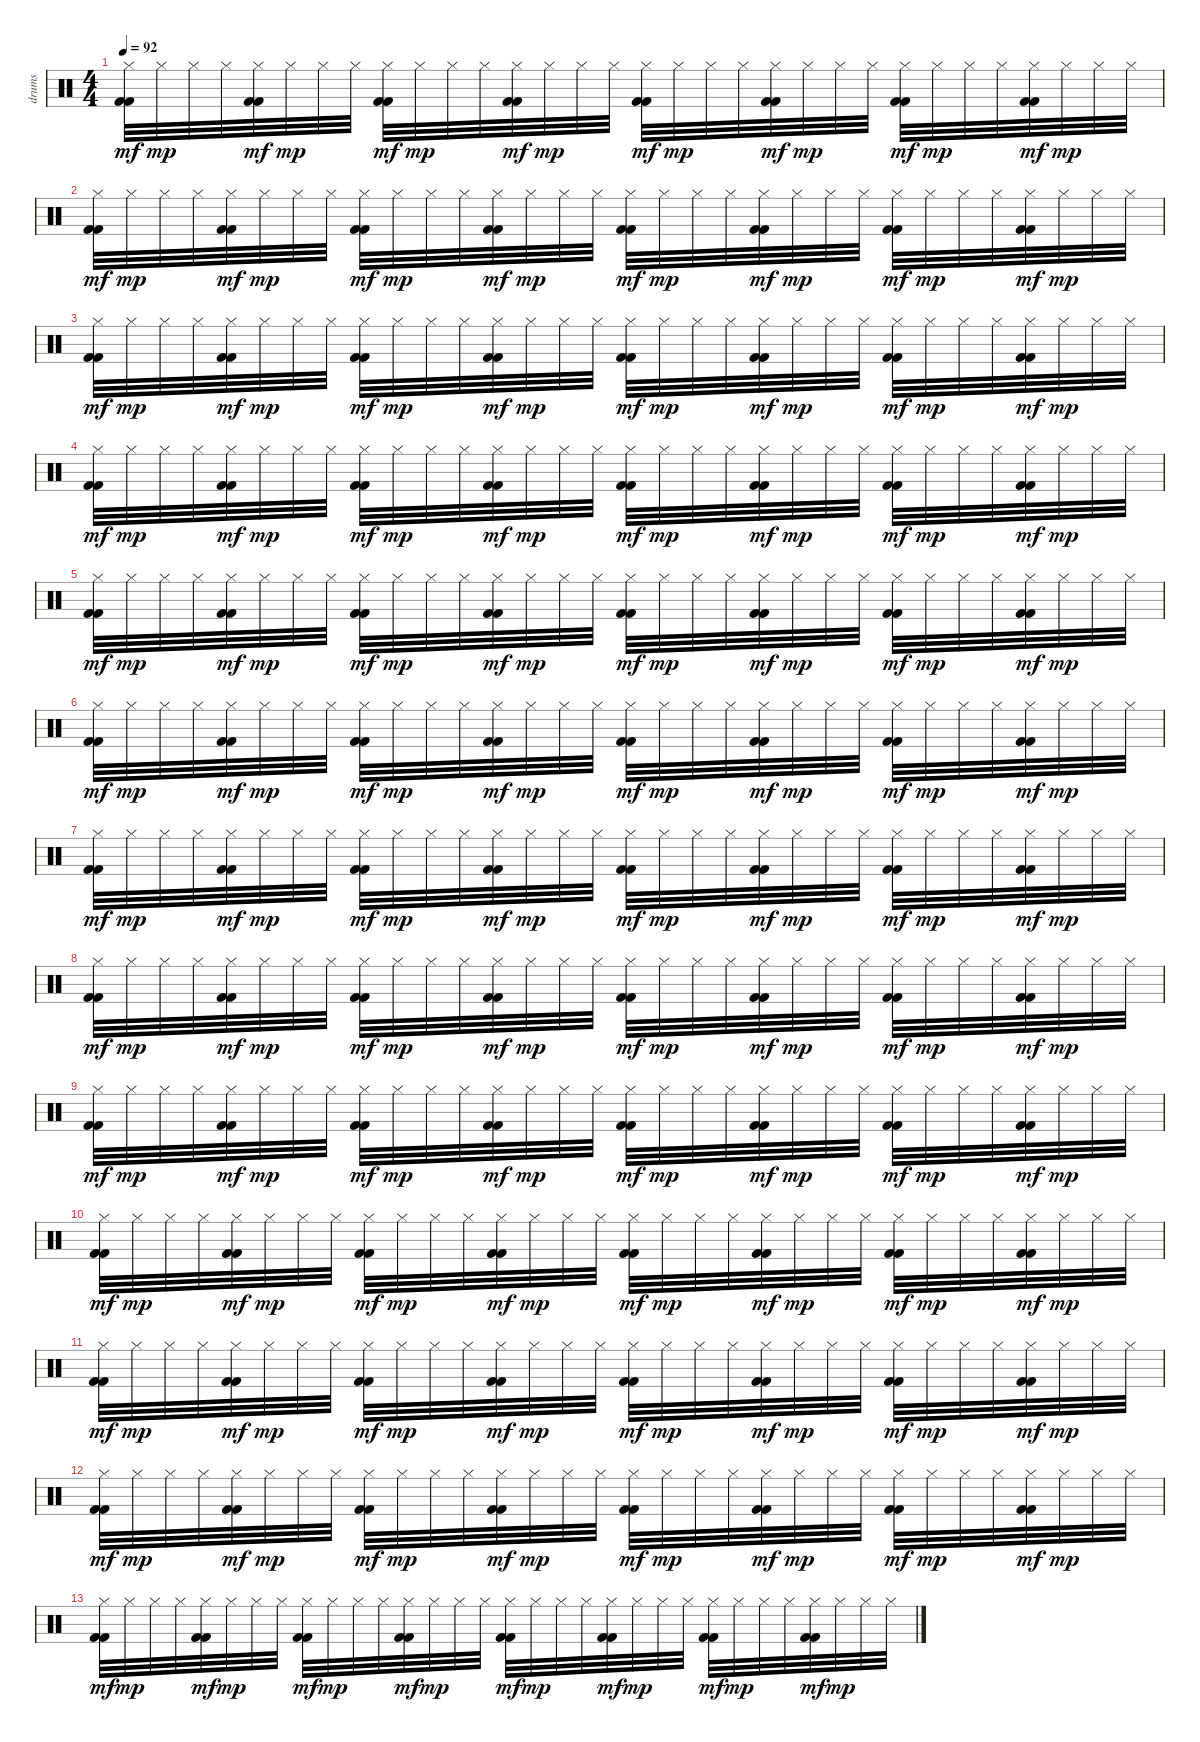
\track ("drums" "drums") {instrument percussion}
\staff {score}
\articulation defaults
\ts (4 4)
\tempo 92
\clef neutral
\ks c
("Hi-Hat (closed)" "Kick (hit) 2" "Kick (hit) 2").32{dy mf} "Hi-Hat (closed)".32{dy mp} "Hi-Hat (closed)".32 "Hi-Hat (closed)".32 ("Hi-Hat (closed)" "Kick (hit) 2" "Kick (hit) 2").32{dy mf} "Hi-Hat (closed)".32{dy mp} "Hi-Hat (closed)".32 "Hi-Hat (closed)".32 ("Hi-Hat (closed)" "Kick (hit) 2" "Kick (hit) 2").32{dy mf} "Hi-Hat (closed)".32{dy mp} "Hi-Hat (closed)".32 "Hi-Hat (closed)".32 ("Hi-Hat (closed)" "Kick (hit) 2" "Kick (hit) 2").32{dy mf} "Hi-Hat (closed)".32{dy mp} "Hi-Hat (closed)".32 "Hi-Hat (closed)".32 ("Hi-Hat (closed)" "Kick (hit) 2" "Kick (hit) 2").32{dy mf} "Hi-Hat (closed)".32{dy mp} "Hi-Hat (closed)".32 "Hi-Hat (closed)".32 ("Hi-Hat (closed)" "Kick (hit) 2" "Kick (hit) 2").32{dy mf} "Hi-Hat (closed)".32{dy mp} "Hi-Hat (closed)".32 "Hi-Hat (closed)".32 ("Hi-Hat (closed)" "Kick (hit) 2" "Kick (hit) 2").32{dy mf} "Hi-Hat (closed)".32{dy mp} "Hi-Hat (closed)".32 "Hi-Hat (closed)".32 ("Hi-Hat (closed)" "Kick (hit) 2" "Kick (hit) 2").32{dy mf} "Hi-Hat (closed)".32{dy mp} "Hi-Hat (closed)".32 "Hi-Hat (closed)".32 |
("Hi-Hat (closed)" "Kick (hit) 2" "Kick (hit) 2").32{dy mf volume 7} "Hi-Hat (closed)".32{dy mp} "Hi-Hat (closed)".32 "Hi-Hat (closed)".32 ("Hi-Hat (closed)" "Kick (hit) 2" "Kick (hit) 2").32{dy mf} "Hi-Hat (closed)".32{dy mp} "Hi-Hat (closed)".32 "Hi-Hat (closed)".32 ("Hi-Hat (closed)" "Kick (hit) 2" "Kick (hit) 2").32{dy mf} "Hi-Hat (closed)".32{dy mp} "Hi-Hat (closed)".32 "Hi-Hat (closed)".32 ("Hi-Hat (closed)" "Kick (hit) 2" "Kick (hit) 2").32{dy mf} "Hi-Hat (closed)".32{dy mp} "Hi-Hat (closed)".32 "Hi-Hat (closed)".32 ("Hi-Hat (closed)" "Kick (hit) 2" "Kick (hit) 2").32{dy mf} "Hi-Hat (closed)".32{dy mp} "Hi-Hat (closed)".32 "Hi-Hat (closed)".32 ("Hi-Hat (closed)" "Kick (hit) 2" "Kick (hit) 2").32{dy mf} "Hi-Hat (closed)".32{dy mp} "Hi-Hat (closed)".32 "Hi-Hat (closed)".32 ("Hi-Hat (closed)" "Kick (hit) 2" "Kick (hit) 2").32{dy mf} "Hi-Hat (closed)".32{dy mp} "Hi-Hat (closed)".32 "Hi-Hat (closed)".32 ("Hi-Hat (closed)" "Kick (hit) 2" "Kick (hit) 2").32{dy mf} "Hi-Hat (closed)".32{dy mp} "Hi-Hat (closed)".32 "Hi-Hat (closed)".32 |
("Hi-Hat (closed)" "Kick (hit) 2" "Kick (hit) 2").32{dy mf} "Hi-Hat (closed)".32{dy mp} "Hi-Hat (closed)".32 "Hi-Hat (closed)".32 ("Hi-Hat (closed)" "Kick (hit) 2" "Kick (hit) 2").32{dy mf} "Hi-Hat (closed)".32{dy mp} "Hi-Hat (closed)".32 "Hi-Hat (closed)".32 ("Hi-Hat (closed)" "Kick (hit) 2" "Kick (hit) 2").32{dy mf} "Hi-Hat (closed)".32{dy mp} "Hi-Hat (closed)".32 "Hi-Hat (closed)".32 ("Hi-Hat (closed)" "Kick (hit) 2" "Kick (hit) 2").32{dy mf} "Hi-Hat (closed)".32{dy mp} "Hi-Hat (closed)".32 "Hi-Hat (closed)".32 ("Hi-Hat (closed)" "Kick (hit) 2" "Kick (hit) 2").32{dy mf} "Hi-Hat (closed)".32{dy mp} "Hi-Hat (closed)".32 "Hi-Hat (closed)".32 ("Hi-Hat (closed)" "Kick (hit) 2" "Kick (hit) 2").32{dy mf} "Hi-Hat (closed)".32{dy mp} "Hi-Hat (closed)".32 "Hi-Hat (closed)".32 ("Hi-Hat (closed)" "Kick (hit) 2" "Kick (hit) 2").32{dy mf} "Hi-Hat (closed)".32{dy mp} "Hi-Hat (closed)".32 "Hi-Hat (closed)".32 ("Hi-Hat (closed)" "Kick (hit) 2" "Kick (hit) 2").32{dy mf} "Hi-Hat (closed)".32{dy mp} "Hi-Hat (closed)".32 "Hi-Hat (closed)".32 |
("Hi-Hat (closed)" "Kick (hit) 2" "Kick (hit) 2").32{dy mf} "Hi-Hat (closed)".32{dy mp} "Hi-Hat (closed)".32 "Hi-Hat (closed)".32 ("Hi-Hat (closed)" "Kick (hit) 2" "Kick (hit) 2").32{dy mf} "Hi-Hat (closed)".32{dy mp} "Hi-Hat (closed)".32 "Hi-Hat (closed)".32 ("Hi-Hat (closed)" "Kick (hit) 2" "Kick (hit) 2").32{dy mf} "Hi-Hat (closed)".32{dy mp} "Hi-Hat (closed)".32 "Hi-Hat (closed)".32 ("Hi-Hat (closed)" "Kick (hit) 2" "Kick (hit) 2").32{dy mf} "Hi-Hat (closed)".32{dy mp} "Hi-Hat (closed)".32 "Hi-Hat (closed)".32 ("Hi-Hat (closed)" "Kick (hit) 2" "Kick (hit) 2").32{dy mf} "Hi-Hat (closed)".32{dy mp} "Hi-Hat (closed)".32 "Hi-Hat (closed)".32 ("Hi-Hat (closed)" "Kick (hit) 2" "Kick (hit) 2").32{dy mf} "Hi-Hat (closed)".32{dy mp} "Hi-Hat (closed)".32 "Hi-Hat (closed)".32 ("Hi-Hat (closed)" "Kick (hit) 2" "Kick (hit) 2").32{dy mf} "Hi-Hat (closed)".32{dy mp} "Hi-Hat (closed)".32 "Hi-Hat (closed)".32 ("Hi-Hat (closed)" "Kick (hit) 2" "Kick (hit) 2").32{dy mf} "Hi-Hat (closed)".32{dy mp} "Hi-Hat (closed)".32 "Hi-Hat (closed)".32 |
("Hi-Hat (closed)" "Kick (hit) 2" "Kick (hit) 2").32{dy mf} "Hi-Hat (closed)".32{dy mp} "Hi-Hat (closed)".32 "Hi-Hat (closed)".32 ("Hi-Hat (closed)" "Kick (hit) 2" "Kick (hit) 2").32{dy mf} "Hi-Hat (closed)".32{dy mp} "Hi-Hat (closed)".32 "Hi-Hat (closed)".32 ("Hi-Hat (closed)" "Kick (hit) 2" "Kick (hit) 2").32{dy mf} "Hi-Hat (closed)".32{dy mp} "Hi-Hat (closed)".32 "Hi-Hat (closed)".32 ("Hi-Hat (closed)" "Kick (hit) 2" "Kick (hit) 2").32{dy mf} "Hi-Hat (closed)".32{dy mp} "Hi-Hat (closed)".32 "Hi-Hat (closed)".32 ("Hi-Hat (closed)" "Kick (hit) 2" "Kick (hit) 2").32{dy mf} "Hi-Hat (closed)".32{dy mp} "Hi-Hat (closed)".32 "Hi-Hat (closed)".32 ("Hi-Hat (closed)" "Kick (hit) 2" "Kick (hit) 2").32{dy mf} "Hi-Hat (closed)".32{dy mp} "Hi-Hat (closed)".32 "Hi-Hat (closed)".32 ("Hi-Hat (closed)" "Kick (hit) 2" "Kick (hit) 2").32{dy mf} "Hi-Hat (closed)".32{dy mp} "Hi-Hat (closed)".32 "Hi-Hat (closed)".32 ("Hi-Hat (closed)" "Kick (hit) 2" "Kick (hit) 2").32{dy mf} "Hi-Hat (closed)".32{dy mp} "Hi-Hat (closed)".32 "Hi-Hat (closed)".32 |
("Hi-Hat (closed)" "Kick (hit) 2" "Kick (hit) 2").32{dy mf volume 6} "Hi-Hat (closed)".32{dy mp} "Hi-Hat (closed)".32 "Hi-Hat (closed)".32 ("Hi-Hat (closed)" "Kick (hit) 2" "Kick (hit) 2").32{dy mf} "Hi-Hat (closed)".32{dy mp} "Hi-Hat (closed)".32 "Hi-Hat (closed)".32 ("Hi-Hat (closed)" "Kick (hit) 2" "Kick (hit) 2").32{dy mf} "Hi-Hat (closed)".32{dy mp} "Hi-Hat (closed)".32 "Hi-Hat (closed)".32 ("Hi-Hat (closed)" "Kick (hit) 2" "Kick (hit) 2").32{dy mf} "Hi-Hat (closed)".32{dy mp} "Hi-Hat (closed)".32 "Hi-Hat (closed)".32 ("Hi-Hat (closed)" "Kick (hit) 2" "Kick (hit) 2").32{dy mf} "Hi-Hat (closed)".32{dy mp} "Hi-Hat (closed)".32 "Hi-Hat (closed)".32 ("Hi-Hat (closed)" "Kick (hit) 2" "Kick (hit) 2").32{dy mf} "Hi-Hat (closed)".32{dy mp} "Hi-Hat (closed)".32 "Hi-Hat (closed)".32 ("Hi-Hat (closed)" "Kick (hit) 2" "Kick (hit) 2").32{dy mf} "Hi-Hat (closed)".32{dy mp} "Hi-Hat (closed)".32 "Hi-Hat (closed)".32 ("Hi-Hat (closed)" "Kick (hit) 2" "Kick (hit) 2").32{dy mf} "Hi-Hat (closed)".32{dy mp} "Hi-Hat (closed)".32 "Hi-Hat (closed)".32 |
("Hi-Hat (closed)" "Kick (hit) 2" "Kick (hit) 2").32{dy mf} "Hi-Hat (closed)".32{dy mp} "Hi-Hat (closed)".32 "Hi-Hat (closed)".32 ("Hi-Hat (closed)" "Kick (hit) 2" "Kick (hit) 2").32{dy mf} "Hi-Hat (closed)".32{dy mp} "Hi-Hat (closed)".32 "Hi-Hat (closed)".32 ("Hi-Hat (closed)" "Kick (hit) 2" "Kick (hit) 2").32{dy mf} "Hi-Hat (closed)".32{dy mp} "Hi-Hat (closed)".32 "Hi-Hat (closed)".32 ("Hi-Hat (closed)" "Kick (hit) 2" "Kick (hit) 2").32{dy mf} "Hi-Hat (closed)".32{dy mp} "Hi-Hat (closed)".32 "Hi-Hat (closed)".32 ("Hi-Hat (closed)" "Kick (hit) 2" "Kick (hit) 2").32{dy mf} "Hi-Hat (closed)".32{dy mp} "Hi-Hat (closed)".32 "Hi-Hat (closed)".32 ("Hi-Hat (closed)" "Kick (hit) 2" "Kick (hit) 2").32{dy mf} "Hi-Hat (closed)".32{dy mp} "Hi-Hat (closed)".32 "Hi-Hat (closed)".32 ("Hi-Hat (closed)" "Kick (hit) 2" "Kick (hit) 2").32{dy mf} "Hi-Hat (closed)".32{dy mp} "Hi-Hat (closed)".32 "Hi-Hat (closed)".32 ("Hi-Hat (closed)" "Kick (hit) 2" "Kick (hit) 2").32{dy mf} "Hi-Hat (closed)".32{dy mp} "Hi-Hat (closed)".32 "Hi-Hat (closed)".32 |
("Hi-Hat (closed)" "Kick (hit) 2" "Kick (hit) 2").32{dy mf volume 4} "Hi-Hat (closed)".32{dy mp} "Hi-Hat (closed)".32 "Hi-Hat (closed)".32 ("Hi-Hat (closed)" "Kick (hit) 2" "Kick (hit) 2").32{dy mf} "Hi-Hat (closed)".32{dy mp} "Hi-Hat (closed)".32 "Hi-Hat (closed)".32 ("Hi-Hat (closed)" "Kick (hit) 2" "Kick (hit) 2").32{dy mf} "Hi-Hat (closed)".32{dy mp} "Hi-Hat (closed)".32 "Hi-Hat (closed)".32 ("Hi-Hat (closed)" "Kick (hit) 2" "Kick (hit) 2").32{dy mf} "Hi-Hat (closed)".32{dy mp} "Hi-Hat (closed)".32 "Hi-Hat (closed)".32 ("Hi-Hat (closed)" "Kick (hit) 2" "Kick (hit) 2").32{dy mf} "Hi-Hat (closed)".32{dy mp} "Hi-Hat (closed)".32 "Hi-Hat (closed)".32 ("Hi-Hat (closed)" "Kick (hit) 2" "Kick (hit) 2").32{dy mf} "Hi-Hat (closed)".32{dy mp} "Hi-Hat (closed)".32 "Hi-Hat (closed)".32 ("Hi-Hat (closed)" "Kick (hit) 2" "Kick (hit) 2").32{dy mf} "Hi-Hat (closed)".32{dy mp} "Hi-Hat (closed)".32 "Hi-Hat (closed)".32 ("Hi-Hat (closed)" "Kick (hit) 2" "Kick (hit) 2").32{dy mf} "Hi-Hat (closed)".32{dy mp} "Hi-Hat (closed)".32 "Hi-Hat (closed)".32 |
("Hi-Hat (closed)" "Kick (hit) 2" "Kick (hit) 2").32{dy mf} "Hi-Hat (closed)".32{dy mp} "Hi-Hat (closed)".32 "Hi-Hat (closed)".32 ("Hi-Hat (closed)" "Kick (hit) 2" "Kick (hit) 2").32{dy mf} "Hi-Hat (closed)".32{dy mp} "Hi-Hat (closed)".32 "Hi-Hat (closed)".32 ("Hi-Hat (closed)" "Kick (hit) 2" "Kick (hit) 2").32{dy mf} "Hi-Hat (closed)".32{dy mp} "Hi-Hat (closed)".32 "Hi-Hat (closed)".32 ("Hi-Hat (closed)" "Kick (hit) 2" "Kick (hit) 2").32{dy mf} "Hi-Hat (closed)".32{dy mp} "Hi-Hat (closed)".32 "Hi-Hat (closed)".32 ("Hi-Hat (closed)" "Kick (hit) 2" "Kick (hit) 2").32{dy mf} "Hi-Hat (closed)".32{dy mp} "Hi-Hat (closed)".32 "Hi-Hat (closed)".32 ("Hi-Hat (closed)" "Kick (hit) 2" "Kick (hit) 2").32{dy mf} "Hi-Hat (closed)".32{dy mp} "Hi-Hat (closed)".32 "Hi-Hat (closed)".32 ("Hi-Hat (closed)" "Kick (hit) 2" "Kick (hit) 2").32{dy mf} "Hi-Hat (closed)".32{dy mp} "Hi-Hat (closed)".32 "Hi-Hat (closed)".32 ("Hi-Hat (closed)" "Kick (hit) 2" "Kick (hit) 2").32{dy mf} "Hi-Hat (closed)".32{dy mp} "Hi-Hat (closed)".32 "Hi-Hat (closed)".32 |
("Hi-Hat (closed)" "Kick (hit) 2" "Kick (hit) 2").32{dy mf} "Hi-Hat (closed)".32{dy mp} "Hi-Hat (closed)".32 "Hi-Hat (closed)".32 ("Hi-Hat (closed)" "Kick (hit) 2" "Kick (hit) 2").32{dy mf} "Hi-Hat (closed)".32{dy mp} "Hi-Hat (closed)".32 "Hi-Hat (closed)".32 ("Hi-Hat (closed)" "Kick (hit) 2" "Kick (hit) 2").32{dy mf} "Hi-Hat (closed)".32{dy mp} "Hi-Hat (closed)".32 "Hi-Hat (closed)".32 ("Hi-Hat (closed)" "Kick (hit) 2" "Kick (hit) 2").32{dy mf} "Hi-Hat (closed)".32{dy mp} "Hi-Hat (closed)".32 "Hi-Hat (closed)".32 ("Hi-Hat (closed)" "Kick (hit) 2" "Kick (hit) 2").32{dy mf} "Hi-Hat (closed)".32{dy mp} "Hi-Hat (closed)".32 "Hi-Hat (closed)".32 ("Hi-Hat (closed)" "Kick (hit) 2" "Kick (hit) 2").32{dy mf} "Hi-Hat (closed)".32{dy mp} "Hi-Hat (closed)".32 "Hi-Hat (closed)".32 ("Hi-Hat (closed)" "Kick (hit) 2" "Kick (hit) 2").32{dy mf} "Hi-Hat (closed)".32{dy mp} "Hi-Hat (closed)".32 "Hi-Hat (closed)".32 ("Hi-Hat (closed)" "Kick (hit) 2" "Kick (hit) 2").32{dy mf} "Hi-Hat (closed)".32{dy mp} "Hi-Hat (closed)".32 "Hi-Hat (closed)".32 |
("Hi-Hat (closed)" "Kick (hit) 2" "Kick (hit) 2").32{dy mf volume 0} "Hi-Hat (closed)".32{dy mp} "Hi-Hat (closed)".32 "Hi-Hat (closed)".32 ("Hi-Hat (closed)" "Kick (hit) 2" "Kick (hit) 2").32{dy mf} "Hi-Hat (closed)".32{dy mp} "Hi-Hat (closed)".32 "Hi-Hat (closed)".32 ("Hi-Hat (closed)" "Kick (hit) 2" "Kick (hit) 2").32{dy mf} "Hi-Hat (closed)".32{dy mp} "Hi-Hat (closed)".32 "Hi-Hat (closed)".32 ("Hi-Hat (closed)" "Kick (hit) 2" "Kick (hit) 2").32{dy mf} "Hi-Hat (closed)".32{dy mp} "Hi-Hat (closed)".32 "Hi-Hat (closed)".32 ("Hi-Hat (closed)" "Kick (hit) 2" "Kick (hit) 2").32{dy mf} "Hi-Hat (closed)".32{dy mp} "Hi-Hat (closed)".32 "Hi-Hat (closed)".32 ("Hi-Hat (closed)" "Kick (hit) 2" "Kick (hit) 2").32{dy mf} "Hi-Hat (closed)".32{dy mp} "Hi-Hat (closed)".32 "Hi-Hat (closed)".32 ("Hi-Hat (closed)" "Kick (hit) 2" "Kick (hit) 2").32{dy mf} "Hi-Hat (closed)".32{dy mp} "Hi-Hat (closed)".32 "Hi-Hat (closed)".32 ("Hi-Hat (closed)" "Kick (hit) 2" "Kick (hit) 2").32{dy mf} "Hi-Hat (closed)".32{dy mp} "Hi-Hat (closed)".32 "Hi-Hat (closed)".32 |
("Hi-Hat (closed)" "Kick (hit) 2" "Kick (hit) 2").32{dy mf} "Hi-Hat (closed)".32{dy mp} "Hi-Hat (closed)".32 "Hi-Hat (closed)".32 ("Hi-Hat (closed)" "Kick (hit) 2" "Kick (hit) 2").32{dy mf} "Hi-Hat (closed)".32{dy mp} "Hi-Hat (closed)".32 "Hi-Hat (closed)".32 ("Hi-Hat (closed)" "Kick (hit) 2" "Kick (hit) 2").32{dy mf} "Hi-Hat (closed)".32{dy mp} "Hi-Hat (closed)".32 "Hi-Hat (closed)".32 ("Hi-Hat (closed)" "Kick (hit) 2" "Kick (hit) 2").32{dy mf} "Hi-Hat (closed)".32{dy mp} "Hi-Hat (closed)".32 "Hi-Hat (closed)".32 ("Hi-Hat (closed)" "Kick (hit) 2" "Kick (hit) 2").32{dy mf} "Hi-Hat (closed)".32{dy mp} "Hi-Hat (closed)".32 "Hi-Hat (closed)".32 ("Hi-Hat (closed)" "Kick (hit) 2" "Kick (hit) 2").32{dy mf} "Hi-Hat (closed)".32{dy mp} "Hi-Hat (closed)".32 "Hi-Hat (closed)".32 ("Hi-Hat (closed)" "Kick (hit) 2" "Kick (hit) 2").32{dy mf} "Hi-Hat (closed)".32{dy mp} "Hi-Hat (closed)".32 "Hi-Hat (closed)".32 ("Hi-Hat (closed)" "Kick (hit) 2" "Kick (hit) 2").32{dy mf} "Hi-Hat (closed)".32{dy mp} "Hi-Hat (closed)".32 "Hi-Hat (closed)".32 |
("Hi-Hat (closed)" "Kick (hit) 2" "Kick (hit) 2").32{dy mf} "Hi-Hat (closed)".32{dy mp} "Hi-Hat (closed)".32 "Hi-Hat (closed)".32 ("Hi-Hat (closed)" "Kick (hit) 2" "Kick (hit) 2").32{dy mf} "Hi-Hat (closed)".32{dy mp} "Hi-Hat (closed)".32 "Hi-Hat (closed)".32 ("Hi-Hat (closed)" "Kick (hit) 2" "Kick (hit) 2").32{dy mf} "Hi-Hat (closed)".32{dy mp} "Hi-Hat (closed)".32 "Hi-Hat (closed)".32 ("Hi-Hat (closed)" "Kick (hit) 2" "Kick (hit) 2").32{dy mf} "Hi-Hat (closed)".32{dy mp} "Hi-Hat (closed)".32 "Hi-Hat (closed)".32 ("Hi-Hat (closed)" "Kick (hit) 2" "Kick (hit) 2").32{dy mf} "Hi-Hat (closed)".32{dy mp} "Hi-Hat (closed)".32 "Hi-Hat (closed)".32 ("Hi-Hat (closed)" "Kick (hit) 2" "Kick (hit) 2").32{dy mf} "Hi-Hat (closed)".32{dy mp} "Hi-Hat (closed)".32 "Hi-Hat (closed)".32 ("Hi-Hat (closed)" "Kick (hit) 2" "Kick (hit) 2").32{dy mf} "Hi-Hat (closed)".32{dy mp} "Hi-Hat (closed)".32 "Hi-Hat (closed)".32 ("Hi-Hat (closed)" "Kick (hit) 2" "Kick (hit) 2").32{dy mf} "Hi-Hat (closed)".32{dy mp} "Hi-Hat (closed)".32 "Hi-Hat (closed)".32
